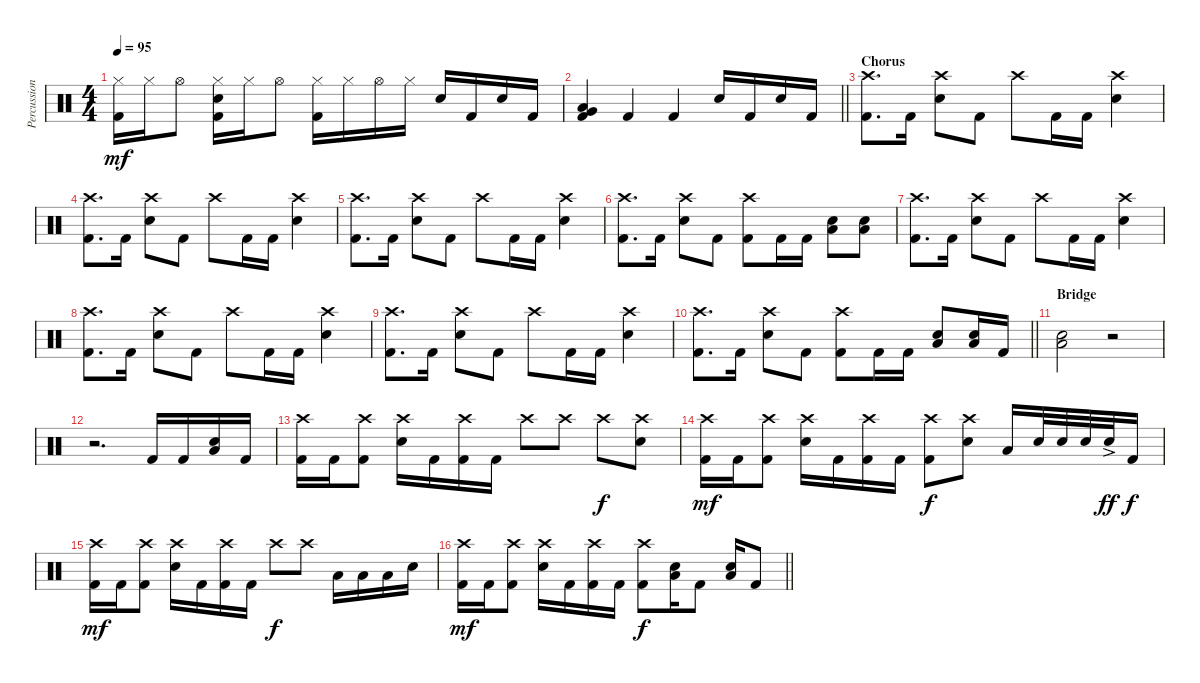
\track ("Percussion" "Percussion") {instrument percussion}
\staff {score}
\articulation defaults
\ts (4 4)
\tempo 95
\clef neutral
\ks c
("Hi-Hat (closed)" "Kick (hit) 2").16{dy mf} "Hi-Hat (closed)".16 "Hi-Hat (open)".8 ("Hi-Hat (closed)" "Snare (hit) 2" "Kick (hit) 2").16 "Hi-Hat (closed)".16 "Hi-Hat (open)".8 ("Hi-Hat (closed)" "Kick (hit) 2").16 "Hi-Hat (closed)".16 "Hi-Hat (open)".16 "Hi-Hat (closed)".16 "Snare (hit) 2".16 "Kick (hit) 2".16 "Snare (hit) 2".16 "Kick (hit) 2".16 |
\barLineRight lightlight
("Low Floor Tom (hit)" "Very Low Tom (hit)" "Kick (hit) 2").4 "Kick (hit) 2".4 "Kick (hit) 2".4 "Snare (hit) 2".16 "Kick (hit) 2".16 "Snare (hit) 2".16 "Kick (hit) 2".16 |
\section ("" "Chorus")
("Crash high (hit)" "Kick (hit) 2").8{d} "Kick (hit) 2".16 ("Crash high (hit)" "Snare (hit) 2").8 "Kick (hit) 2".8 "Crash high (hit)".8 "Kick (hit) 2".16 "Kick (hit) 2".16 ("Crash high (hit)" "Snare (hit) 2").4 |
("Crash high (hit)" "Kick (hit) 2").8{d} "Kick (hit) 2".16 ("Crash high (hit)" "Snare (hit) 2").8 "Kick (hit) 2".8 "Crash high (hit)".8 "Kick (hit) 2".16 "Kick (hit) 2".16 ("Crash high (hit)" "Snare (hit) 2").4 |
("Crash high (hit)" "Kick (hit) 2").8{d} "Kick (hit) 2".16 ("Crash high (hit)" "Snare (hit) 2").8 "Kick (hit) 2".8 "Crash high (hit)".8 "Kick (hit) 2".16 "Kick (hit) 2".16 ("Crash high (hit)" "Snare (hit) 2").4 |
("Crash high (hit)" "Kick (hit) 2").8{d} "Kick (hit) 2".16 ("Crash high (hit)" "Snare (hit) 2").8 "Kick (hit) 2".8 ("Crash high (hit)" "Kick (hit) 2").8 "Kick (hit) 2".16 "Kick (hit) 2".16 ("Low Floor Tom (hit)" "Snare (hit) 2").8 ("Low Floor Tom (hit)" "Snare (hit) 2").8 |
("Crash high (hit)" "Kick (hit) 2").8{d} "Kick (hit) 2".16 ("Crash high (hit)" "Snare (hit) 2").8 "Kick (hit) 2".8 "Crash high (hit)".8 "Kick (hit) 2".16 "Kick (hit) 2".16 ("Crash high (hit)" "Snare (hit) 2").4 |
("Crash high (hit)" "Kick (hit) 2").8{d} "Kick (hit) 2".16 ("Crash high (hit)" "Snare (hit) 2").8 "Kick (hit) 2".8 "Crash high (hit)".8 "Kick (hit) 2".16 "Kick (hit) 2".16 ("Crash high (hit)" "Snare (hit) 2").4 |
("Crash high (hit)" "Kick (hit) 2").8{d} "Kick (hit) 2".16 ("Crash high (hit)" "Snare (hit) 2").8 "Kick (hit) 2".8 "Crash high (hit)".8 "Kick (hit) 2".16 "Kick (hit) 2".16 ("Crash high (hit)" "Snare (hit) 2").4 |
\barLineRight lightlight
("Crash high (hit)" "Kick (hit) 2").8{d} "Kick (hit) 2".16 ("Crash high (hit)" "Snare (hit) 2").8 "Kick (hit) 2".8 ("Crash high (hit)" "Kick (hit) 2").8 "Kick (hit) 2".16 "Kick (hit) 2".16 ("Low Floor Tom (hit)" "Snare (hit) 2").8 ("Low Floor Tom (hit)" "Snare (hit) 2").16 "Kick (hit) 2".16 |
\section ("" "Bridge")
("Low Floor Tom (hit)" "Snare (hit) 2").2 r.2 |
r.2{d} "Kick (hit) 2".16 "Kick (hit) 2".16 ("Low Floor Tom (hit)" "Snare (hit) 2").16 "Kick (hit) 2".16 |
("Crash high (hit)" "Kick (hit) 2").16 "Kick (hit) 2".16 ("Crash high (hit)" "Kick (hit) 2").8 ("Crash high (hit)" "Snare (hit) 2").16 "Kick (hit) 2".16 ("Crash high (hit)" "Kick (hit) 2").16 "Kick (hit) 2".16 "Crash high (hit)".8 "Crash high (hit)".8 "Crash high (hit)".8{dy f} ("Crash high (hit)" "Snare (hit) 2").8 |
("Crash high (hit)" "Kick (hit) 2").16{dy mf} "Kick (hit) 2".16 ("Crash high (hit)" "Kick (hit) 2").8 ("Crash high (hit)" "Snare (hit) 2").16 "Kick (hit) 2".16 ("Crash high (hit)" "Kick (hit) 2").16 "Kick (hit) 2".16 ("Crash high (hit)" "Kick (hit) 2").8{dy f} ("Crash high (hit)" "Snare (hit) 2").8 "Low Tom (hit)".16 "Snare (hit) 2".32 "Snare (hit) 2".32 "Snare (hit) 2".32 "Snare (hit) 2"{ac}.32{dy ff} "Kick (hit) 2".16{dy f} |
("Crash high (hit)" "Kick (hit) 2").16{dy mf} "Kick (hit) 2".16 ("Crash high (hit)" "Kick (hit) 2").8 ("Crash high (hit)" "Snare (hit) 2").16 "Kick (hit) 2".16 ("Crash high (hit)" "Kick (hit) 2").16 "Kick (hit) 2".16 "Crash high (hit)".8{dy f} "Crash high (hit)".8 "Low Tom (hit)".16 "Low Floor Tom (hit)".16 "Low Floor Tom (hit)".16 "Snare (hit) 2".16 |
\barLineRight lightlight
("Crash high (hit)" "Kick (hit) 2").16{dy mf} "Kick (hit) 2".16 ("Crash high (hit)" "Kick (hit) 2").8 ("Crash high (hit)" "Snare (hit) 2").16 "Kick (hit) 2".16 ("Crash high (hit)" "Kick (hit) 2").16 "Kick (hit) 2".16 ("Crash high (hit)" "Kick (hit) 2").8{dy f} ("Low Floor Tom (hit)" "Snare (hit) 2").16 "Kick (hit) 2".8 ("Low Floor Tom (hit)" "Snare (hit) 2").16 "Kick (hit) 2".8
